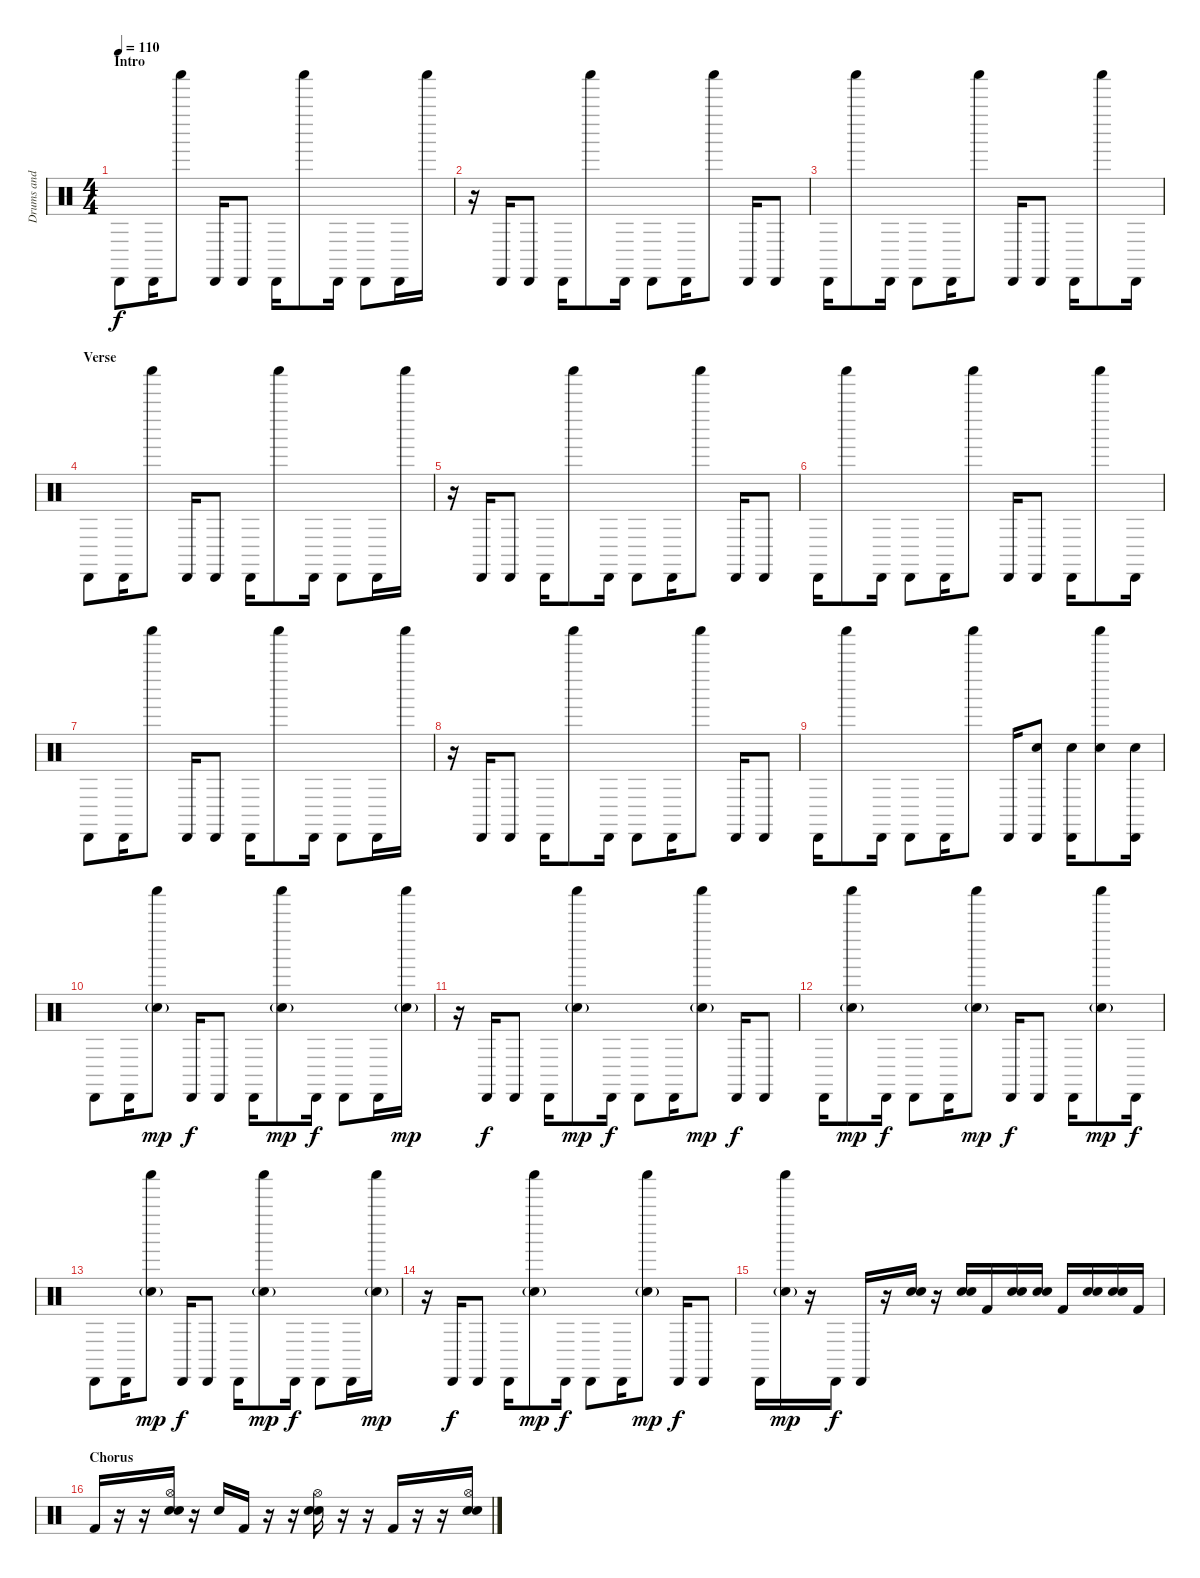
\track ("Drums and Claps" "Drums and ") {instrument percussion}
\staff {score}
\articulation defaults
\ts (4 4)
\section ("" "Intro")
\tempo 110
\clef neutral
\ks c "Cabasa (hit)".8{dy f} "Cabasa (hit)".16 "Shaker (hit)".8 "Cabasa (hit)".16 "Cabasa (hit)".8 "Cabasa (hit)".16 "Shaker (hit)".8 "Cabasa (hit)".16 "Cabasa (hit)".8 "Cabasa (hit)".16 "Shaker (hit)".16
|
r.16 "Cabasa (hit)".16 "Cabasa (hit)".8 "Cabasa (hit)".16 "Shaker (hit)".8 "Cabasa (hit)".16 "Cabasa (hit)".8 "Cabasa (hit)".16 "Shaker (hit)".8 "Cabasa (hit)".16 "Cabasa (hit)".8 |
"Cabasa (hit)".16 "Shaker (hit)".8 "Cabasa (hit)".16 "Cabasa (hit)".8 "Cabasa (hit)".16 "Shaker (hit)".8 "Cabasa (hit)".16 "Cabasa (hit)".8 "Cabasa (hit)".16 "Shaker (hit)".8 "Cabasa (hit)".16 |
\section ("" "Verse")
"Cabasa (hit)".8 "Cabasa (hit)".16 "Shaker (hit)".8 "Cabasa (hit)".16 "Cabasa (hit)".8 "Cabasa (hit)".16 "Shaker (hit)".8 "Cabasa (hit)".16 "Cabasa (hit)".8 "Cabasa (hit)".16 "Shaker (hit)".16 |
r.16 "Cabasa (hit)".16 "Cabasa (hit)".8 "Cabasa (hit)".16 "Shaker (hit)".8 "Cabasa (hit)".16 "Cabasa (hit)".8 "Cabasa (hit)".16 "Shaker (hit)".8 "Cabasa (hit)".16 "Cabasa (hit)".8 |
"Cabasa (hit)".16 "Shaker (hit)".8 "Cabasa (hit)".16 "Cabasa (hit)".8 "Cabasa (hit)".16 "Shaker (hit)".8 "Cabasa (hit)".16 "Cabasa (hit)".8 "Cabasa (hit)".16 "Shaker (hit)".8 "Cabasa (hit)".16 |
"Cabasa (hit)".8 "Cabasa (hit)".16 "Shaker (hit)".8 "Cabasa (hit)".16 "Cabasa (hit)".8 "Cabasa (hit)".16 "Shaker (hit)".8 "Cabasa (hit)".16 "Cabasa (hit)".8 "Cabasa (hit)".16 "Shaker (hit)".16 |
r.16 "Cabasa (hit)".16 "Cabasa (hit)".8 "Cabasa (hit)".16 "Shaker (hit)".8 "Cabasa (hit)".16 "Cabasa (hit)".8 "Cabasa (hit)".16 "Shaker (hit)".8 "Cabasa (hit)".16 "Cabasa (hit)".8 |
"Cabasa (hit)".16 "Shaker (hit)".8 "Cabasa (hit)".16 "Cabasa (hit)".8 "Cabasa (hit)".16 "Shaker (hit)".8 "Cabasa (hit)".16 ("Cabasa (hit)" "Snare (hit) 2").8 ("Cabasa (hit)" "Snare (hit) 2").16 ("Shaker (hit)" "Snare (hit) 2").8 ("Cabasa (hit)" "Snare (hit) 2").16 |
"Cabasa (hit)".8 "Cabasa (hit)".16 ("Shaker (hit)" "Snare (hit) 2"{g}).8{dy mp} "Cabasa (hit)".16{dy f} "Cabasa (hit)".8 "Cabasa (hit)".16 ("Shaker (hit)" "Snare (hit) 2"{g}).8{dy mp} "Cabasa (hit)".16{dy f} "Cabasa (hit)".8 "Cabasa (hit)".16 ("Shaker (hit)" "Snare (hit) 2"{g}).16{dy mp} |
r.16 "Cabasa (hit)".16{dy f} "Cabasa (hit)".8 "Cabasa (hit)".16 ("Shaker (hit)" "Snare (hit) 2"{g}).8{dy mp} "Cabasa (hit)".16{dy f} "Cabasa (hit)".8 "Cabasa (hit)".16 ("Shaker (hit)" "Snare (hit) 2"{g}).8{dy mp} "Cabasa (hit)".16{dy f} "Cabasa (hit)".8 |
"Cabasa (hit)".16 ("Shaker (hit)" "Snare (hit) 2"{g}).8{dy mp} "Cabasa (hit)".16{dy f} "Cabasa (hit)".8 "Cabasa (hit)".16 ("Shaker (hit)" "Snare (hit) 2"{g}).8{dy mp} "Cabasa (hit)".16{dy f} "Cabasa (hit)".8 "Cabasa (hit)".16 ("Shaker (hit)" "Snare (hit) 2"{g}).8{dy mp} "Cabasa (hit)".16{dy f} |
"Cabasa (hit)".8 "Cabasa (hit)".16 ("Shaker (hit)" "Snare (hit) 2"{g}).8{dy mp} "Cabasa (hit)".16{dy f} "Cabasa (hit)".8 "Cabasa (hit)".16 ("Shaker (hit)" "Snare (hit) 2"{g}).8{dy mp} "Cabasa (hit)".16{dy f} "Cabasa (hit)".8 "Cabasa (hit)".16 ("Shaker (hit)" "Snare (hit) 2"{g}).16{dy mp} |
r.16 "Cabasa (hit)".16{dy f} "Cabasa (hit)".8 "Cabasa (hit)".16 ("Shaker (hit)" "Snare (hit) 2"{g}).8{dy mp} "Cabasa (hit)".16{dy f} "Cabasa (hit)".8 "Cabasa (hit)".16 ("Shaker (hit)" "Snare (hit) 2"{g}).8{dy mp} "Cabasa (hit)".16{dy f} "Cabasa (hit)".8 |
"Cabasa (hit)".16 ("Shaker (hit)" "Snare (hit) 2"{g}).16{dy mp} r.16 "Cabasa (hit)".16{dy f} "Cabasa (hit)".16 r.16 ("Electric Snare (hit)" "Snare (hit) 2").16 r.16 ("Electric Snare (hit)" "Snare (hit) 2").16 "Kick (hit) 2".16 ("Electric Snare (hit)" "Snare (hit) 2").16 ("Electric Snare (hit)" "Snare (hit) 2").16 "Kick (hit) 2".16 ("Electric Snare (hit)" "Snare (hit) 2").16 ("Electric Snare (hit)" "Snare (hit) 2").16 "Kick (hit) 2".16 |
\section ("" "Chorus")
"Kick (hit) 2".16 r.16 r.16 ("Hi-Hat (open)" "Hand Clap (hit)" "Snare (hit) 2").16 r.16 "Hand Clap (hit)".16 "Kick (hit) 2".16 r.16 r.16 ("Hi-Hat (open)" "Hand Clap (hit)" "Snare (hit) 2").16 r.16 r.16 "Kick (hit) 2".16 r.16 r.16 ("Hi-Hat (open)" "Hand Clap (hit)" "Snare (hit) 2").16
